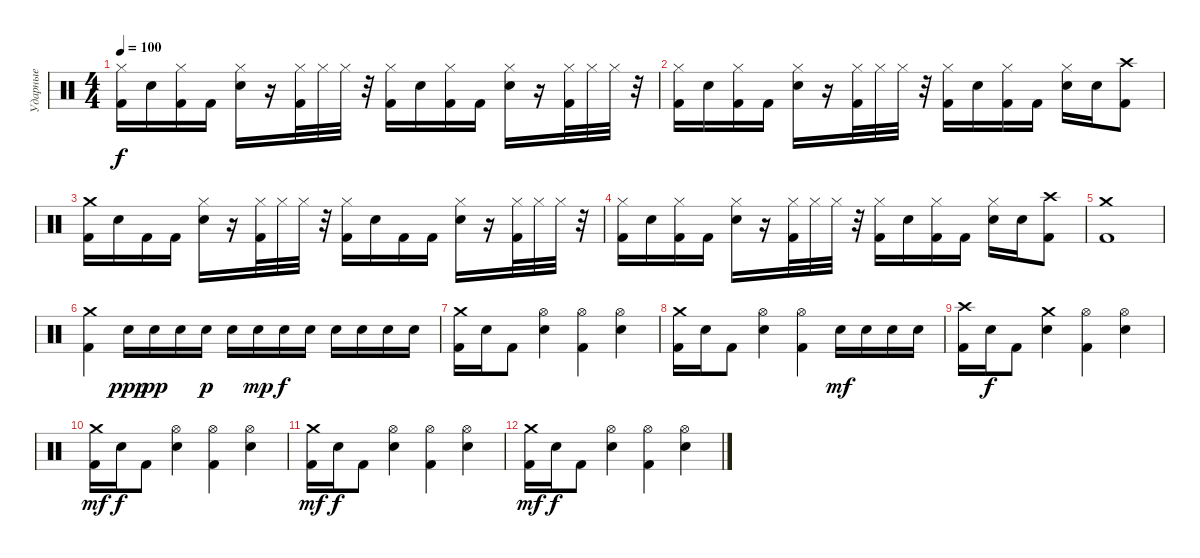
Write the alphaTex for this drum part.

\track ("Ударные" "Ударные") {instrument percussion}
\staff {score}
\articulation defaults
\ts (4 4)
\tempo 100
\clef neutral
\ks c
("Hi-Hat (closed)" "Kick (hit) 2").16{dy f} "Snare (hit) 2".16 ("Kick (hit) 2" "Hi-Hat (closed)").16 "Kick (hit) 2".16 ("Snare (hit) 2" "Hi-Hat (closed)").16 r.16 ("Kick (hit) 2" "Hi-Hat (closed)").32 "Hi-Hat (closed)".32 "Hi-Hat (closed)".32 r.32 ("Hi-Hat (closed)" "Kick (hit) 2").16 "Snare (hit) 2".16 ("Kick (hit) 2" "Hi-Hat (closed)").16 "Kick (hit) 2".16 ("Snare (hit) 2" "Hi-Hat (closed)").16 r.16 ("Kick (hit) 2" "Hi-Hat (closed)").32 "Hi-Hat (closed)".32 "Hi-Hat (closed)".32 r.32 |
("Hi-Hat (closed)" "Kick (hit) 2").16 "Snare (hit) 2".16 ("Kick (hit) 2" "Hi-Hat (closed)").16 "Kick (hit) 2".16 ("Snare (hit) 2" "Hi-Hat (closed)").16 r.16 ("Kick (hit) 2" "Hi-Hat (closed)").32 "Hi-Hat (closed)".32 "Hi-Hat (closed)".32 r.32 ("Hi-Hat (closed)" "Kick (hit) 2").16 "Snare (hit) 2".16 ("Kick (hit) 2" "Hi-Hat (closed)").16 "Kick (hit) 2".16 ("Snare (hit) 2" "Hi-Hat (closed)").16 "Snare (hit) 2".16 ("Crash high (hit)" "Kick (hit) 2").8 |
("Crash medium (hit)" "Kick (hit) 2").16 "Snare (hit) 2".16 "Kick (hit) 2".16 "Kick (hit) 2".16 ("Snare (hit) 2" "Hi-Hat (closed)").16 r.16 ("Kick (hit) 2" "Hi-Hat (closed)").32 "Hi-Hat (closed)".32 "Hi-Hat (closed)".32 r.32 ("Hi-Hat (closed)" "Kick (hit) 2").16 "Snare (hit) 2".16 "Kick (hit) 2".16 "Kick (hit) 2".16 ("Snare (hit) 2" "Hi-Hat (closed)").16 r.16 ("Kick (hit) 2" "Hi-Hat (closed)").32 "Hi-Hat (closed)".32 "Hi-Hat (closed)".32 r.32 |
("Hi-Hat (closed)" "Kick (hit) 2").16 "Snare (hit) 2".16 ("Kick (hit) 2" "Hi-Hat (closed)").16 "Kick (hit) 2".16 ("Snare (hit) 2" "Hi-Hat (closed)").16 r.16 ("Kick (hit) 2" "Hi-Hat (closed)").32 "Hi-Hat (closed)".32 "Hi-Hat (closed)".32 r.32 ("Hi-Hat (closed)" "Kick (hit) 2").16 "Snare (hit) 2".16 ("Kick (hit) 2" "Hi-Hat (closed)").16 "Kick (hit) 2".16 ("Snare (hit) 2" "Hi-Hat (closed)").16 "Snare (hit) 2".16 ("Crash high (hit)" "Kick (hit) 2").8 |
("Crash medium (hit)" "Kick (hit) 2").1 |
("Kick (hit) 2" "Crash medium (hit)").4 "Electric Snare (hit)".16{dy ppp} "Electric Snare (hit)".16{dy pp} "Electric Snare (hit)".16 "Electric Snare (hit)".16{dy p} "Electric Snare (hit)".16 "Electric Snare (hit)".16{dy mp} "Electric Snare (hit)".16{dy f} "Electric Snare (hit)".16 "Electric Snare (hit)".16 "Electric Snare (hit)".16 "Electric Snare (hit)".16 "Electric Snare (hit)".16 |
("Kick (hit) 2" "Crash medium (hit)").16 "Electric Snare (hit)".16 "Kick (hit) 2".8 ("Electric Snare (hit)" "Hi-Hat (open)").4 ("Hi-Hat (open)" "Kick (hit) 2").4 ("Hi-Hat (open)" "Electric Snare (hit)").4 |
("Kick (hit) 2" "Crash medium (hit)").16 "Electric Snare (hit)".16 "Kick (hit) 2".8 ("Electric Snare (hit)" "Hi-Hat (open)").4 ("Hi-Hat (open)" "Kick (hit) 2").4 "Electric Snare (hit)".16{dy mf} "Electric Snare (hit)".16 "Electric Snare (hit)".16 "Electric Snare (hit)".16 |
("Kick (hit) 2" "Crash high (hit)").16 "Electric Snare (hit)".16{dy f} "Kick (hit) 2".8 ("Electric Snare (hit)" "Crash medium (hit)").4 ("Hi-Hat (open)" "Kick (hit) 2").4 ("Hi-Hat (open)" "Electric Snare (hit)").4 |
("Kick (hit) 2" "Crash medium (hit)").16{dy mf} "Electric Snare (hit)".16{dy f} "Kick (hit) 2".8 ("Electric Snare (hit)" "Hi-Hat (open)").4 ("Hi-Hat (open)" "Kick (hit) 2").4 ("Hi-Hat (open)" "Electric Snare (hit)").4 |
("Kick (hit) 2" "Crash medium (hit)").16{dy mf} "Electric Snare (hit)".16{dy f} "Kick (hit) 2".8 ("Electric Snare (hit)" "Hi-Hat (open)").4 ("Hi-Hat (open)" "Kick (hit) 2").4 ("Hi-Hat (open)" "Electric Snare (hit)").4 |
("Kick (hit) 2" "Crash medium (hit)").16{dy mf} "Electric Snare (hit)".16{dy f} "Kick (hit) 2".8 ("Electric Snare (hit)" "Hi-Hat (open)").4 ("Hi-Hat (open)" "Kick (hit) 2").4 ("Hi-Hat (open)" "Electric Snare (hit)").4
